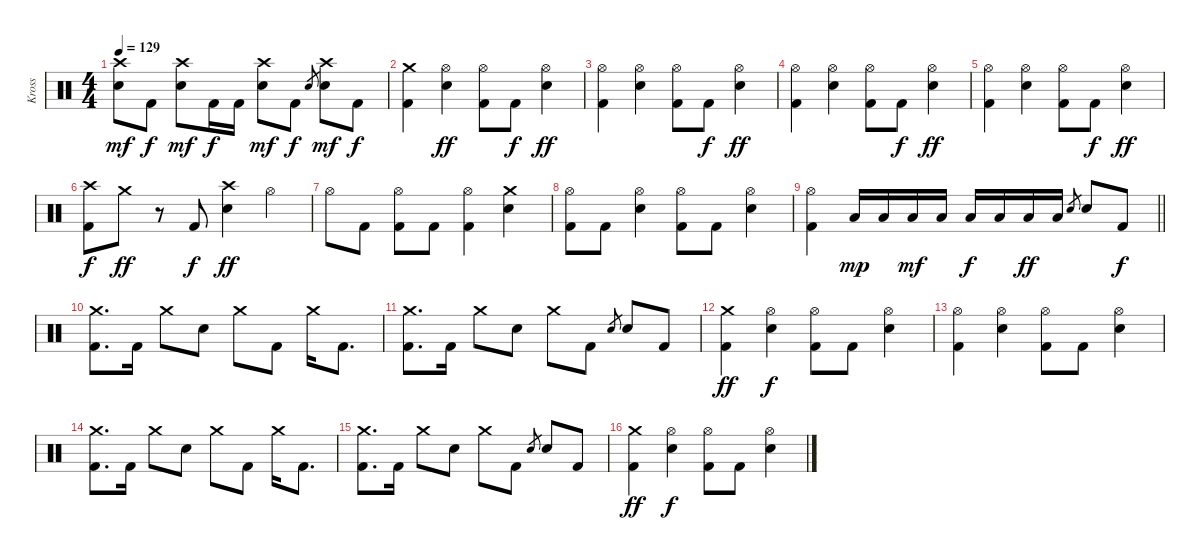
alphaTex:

\track ("Kross" "Kross") {instrument percussion}
\staff {score}
\articulation defaults
\ts (4 4)
\tempo 129
\clef neutral
\ks c
("Crash high (hit)" "Electric Snare (hit)").8{dy mf} "Kick (hit) 2".8{dy f} ("Crash high (hit)" "Electric Snare (hit)").8{dy mf} "Kick (hit) 2".16{dy f} "Kick (hit) 2".16 ("Crash high (hit)" "Electric Snare (hit)").8{dy mf} "Kick (hit) 2".8{dy f} "Electric Snare (hit)".8{gr} ("Crash high (hit)" "Electric Snare (hit)").8{dy mf} "Kick (hit) 2".8{dy f} |
("Crash medium (hit)" "Kick (hit) 2").4 ("Hi-Hat (open)" "Electric Snare (hit)").4{dy ff} ("Hi-Hat (open)" "Kick (hit) 2").8 "Kick (hit) 2".8{dy f} ("Hi-Hat (open)" "Electric Snare (hit)").4{dy ff} |
("Hi-Hat (open)" "Kick (hit) 2").4 ("Hi-Hat (open)" "Electric Snare (hit)").4 ("Hi-Hat (open)" "Kick (hit) 2").8 "Kick (hit) 2".8{dy f} ("Hi-Hat (open)" "Electric Snare (hit)").4{dy ff} |
("Hi-Hat (open)" "Kick (hit) 2").4 ("Hi-Hat (open)" "Electric Snare (hit)").4 ("Hi-Hat (open)" "Kick (hit) 2").8 "Kick (hit) 2".8{dy f} ("Hi-Hat (open)" "Electric Snare (hit)").4{dy ff} |
("Hi-Hat (open)" "Kick (hit) 2").4 ("Hi-Hat (open)" "Electric Snare (hit)").4 ("Hi-Hat (open)" "Kick (hit) 2").8 "Kick (hit) 2".8{dy f} ("Hi-Hat (open)" "Electric Snare (hit)").4{dy ff} |
("Crash high (hit)" "Kick (hit) 2").8{dy f} "Crash medium (hit)".8{dy ff} r.8 "Kick (hit) 2".8{dy f} ("Crash high (hit)" "Electric Snare (hit)").4{dy ff} "Hi-Hat (open)".4 |
"Hi-Hat (open)".8 "Kick (hit) 2".8 ("Hi-Hat (open)" "Kick (hit) 2").8 "Kick (hit) 2".8 ("Hi-Hat (open)" "Kick (hit) 2").4 ("Crash medium (hit)" "Electric Snare (hit)").4 |
("Hi-Hat (open)" "Kick (hit) 2").8 "Kick (hit) 2".8 ("Hi-Hat (open)" "Electric Snare (hit)").4 ("Hi-Hat (open)" "Kick (hit) 2").8 "Kick (hit) 2".8 ("Hi-Hat (open)" "Electric Snare (hit)").4 |
\barLineRight lightlight
("Hi-Hat (open)" "Kick (hit) 2").4 "Low Tom (hit)".16{dy mp} "Low Tom (hit)".16 "Low Tom (hit)".16{dy mf} "Low Tom (hit)".16 "Low Tom (hit)".16{dy f} "Low Tom (hit)".16 "Low Tom (hit)".16{dy ff} "Low Tom (hit)".16 "Electric Snare (hit)".8{gr} "Electric Snare (hit)".8 "Kick (hit) 2".8{dy f} |
("Crash medium (hit)" "Kick (hit) 2").8{d} "Kick (hit) 2".16 "Crash medium (hit)".8 "Electric Snare (hit)".8 "Crash medium (hit)".8 "Kick (hit) 2".8 "Crash medium (hit)".16 "Kick (hit) 2".8{d} |
("Crash medium (hit)" "Kick (hit) 2").8{d} "Kick (hit) 2".16 "Crash medium (hit)".8 "Electric Snare (hit)".8 "Crash medium (hit)".8 "Kick (hit) 2".8 "Electric Snare (hit)".8{gr} "Electric Snare (hit)".8 "Kick (hit) 2".8 |
("Crash medium (hit)" "Kick (hit) 2").4{dy ff} ("Hi-Hat (open)" "Electric Snare (hit)").4{dy f} ("Hi-Hat (open)" "Kick (hit) 2").8 "Kick (hit) 2".8 ("Hi-Hat (open)" "Electric Snare (hit)").4 |
("Hi-Hat (open)" "Kick (hit) 2").4 ("Hi-Hat (open)" "Electric Snare (hit)").4 ("Hi-Hat (open)" "Kick (hit) 2").8 "Kick (hit) 2".8 ("Hi-Hat (open)" "Electric Snare (hit)").4 |
("Crash medium (hit)" "Kick (hit) 2").8{d} "Kick (hit) 2".16 "Crash medium (hit)".8 "Electric Snare (hit)".8 "Crash medium (hit)".8 "Kick (hit) 2".8 "Crash medium (hit)".16 "Kick (hit) 2".8{d} |
("Crash medium (hit)" "Kick (hit) 2").8{d} "Kick (hit) 2".16 "Crash medium (hit)".8 "Electric Snare (hit)".8 "Crash medium (hit)".8 "Kick (hit) 2".8 "Electric Snare (hit)".8{gr} "Electric Snare (hit)".8 "Kick (hit) 2".8 |
("Crash medium (hit)" "Kick (hit) 2").4{dy ff} ("Hi-Hat (open)" "Electric Snare (hit)").4{dy f} ("Hi-Hat (open)" "Kick (hit) 2").8 "Kick (hit) 2".8 ("Hi-Hat (open)" "Electric Snare (hit)").4
